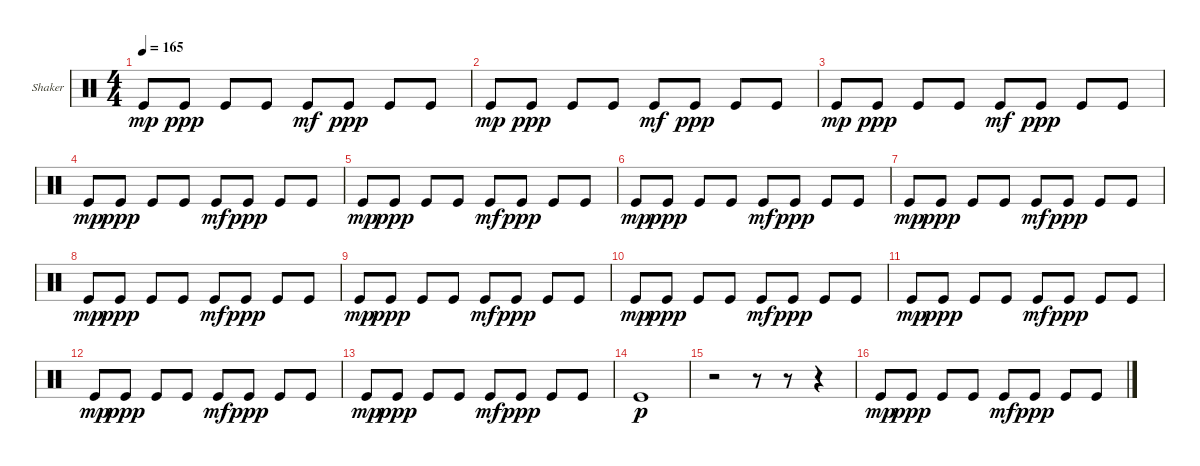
\defaultSystemsLayout 4
\bracketExtendMode groupsimilarinstruments
\firstSystemTrackNameOrientation horizontal
\otherSystemsTrackNameOrientation horizontal
\track ("Shaker" "Shaker") {instrument percussion}
\staff {score}
\articulation defaults
\ts (4 4)
\tempo 165
\clef neutral
\ks c "Kick (hit)".8{dy mp} "Kick (hit)".8{dy ppp} "Kick (hit)".8 "Kick (hit)".8 "Kick (hit)".8{dy mf} "Kick (hit)".8{dy ppp} "Kick (hit)".8 "Kick (hit)".8
|
"Kick (hit)".8{dy mp} "Kick (hit)".8{dy ppp} "Kick (hit)".8 "Kick (hit)".8 "Kick (hit)".8{dy mf} "Kick (hit)".8{dy ppp} "Kick (hit)".8 "Kick (hit)".8 |
"Kick (hit)".8{dy mp} "Kick (hit)".8{dy ppp} "Kick (hit)".8 "Kick (hit)".8 "Kick (hit)".8{dy mf} "Kick (hit)".8{dy ppp} "Kick (hit)".8 "Kick (hit)".8 |
"Kick (hit)".8{dy mp} "Kick (hit)".8{dy ppp} "Kick (hit)".8 "Kick (hit)".8 "Kick (hit)".8{dy mf} "Kick (hit)".8{dy ppp} "Kick (hit)".8 "Kick (hit)".8 |
"Kick (hit)".8{dy mp} "Kick (hit)".8{dy ppp} "Kick (hit)".8 "Kick (hit)".8 "Kick (hit)".8{dy mf} "Kick (hit)".8{dy ppp} "Kick (hit)".8 "Kick (hit)".8 |
"Kick (hit)".8{dy mp} "Kick (hit)".8{dy ppp} "Kick (hit)".8 "Kick (hit)".8 "Kick (hit)".8{dy mf} "Kick (hit)".8{dy ppp} "Kick (hit)".8 "Kick (hit)".8 |
"Kick (hit)".8{dy mp} "Kick (hit)".8{dy ppp} "Kick (hit)".8 "Kick (hit)".8 "Kick (hit)".8{dy mf} "Kick (hit)".8{dy ppp} "Kick (hit)".8 "Kick (hit)".8 |
"Kick (hit)".8{dy mp} "Kick (hit)".8{dy ppp} "Kick (hit)".8 "Kick (hit)".8 "Kick (hit)".8{dy mf} "Kick (hit)".8{dy ppp} "Kick (hit)".8 "Kick (hit)".8 |
"Kick (hit)".8{dy mp} "Kick (hit)".8{dy ppp} "Kick (hit)".8 "Kick (hit)".8 "Kick (hit)".8{dy mf} "Kick (hit)".8{dy ppp} "Kick (hit)".8 "Kick (hit)".8 |
"Kick (hit)".8{dy mp} "Kick (hit)".8{dy ppp} "Kick (hit)".8 "Kick (hit)".8 "Kick (hit)".8{dy mf} "Kick (hit)".8{dy ppp} "Kick (hit)".8 "Kick (hit)".8 |
"Kick (hit)".8{dy mp} "Kick (hit)".8{dy ppp} "Kick (hit)".8 "Kick (hit)".8 "Kick (hit)".8{dy mf} "Kick (hit)".8{dy ppp} "Kick (hit)".8 "Kick (hit)".8 |
"Kick (hit)".8{dy mp} "Kick (hit)".8{dy ppp} "Kick (hit)".8 "Kick (hit)".8 "Kick (hit)".8{dy mf} "Kick (hit)".8{dy ppp} "Kick (hit)".8 "Kick (hit)".8 |
"Kick (hit)".8{dy mp} "Kick (hit)".8{dy ppp} "Kick (hit)".8 "Kick (hit)".8 "Kick (hit)".8{dy mf} "Kick (hit)".8{dy ppp} "Kick (hit)".8 "Kick (hit)".8 |
"Kick (hit)".1{dy p} |
r.2 r.8 r.8 r.4 |
"Kick (hit)".8{dy mp} "Kick (hit)".8{dy ppp} "Kick (hit)".8 "Kick (hit)".8 "Kick (hit)".8{dy mf} "Kick (hit)".8{dy ppp} "Kick (hit)".8 "Kick (hit)".8
